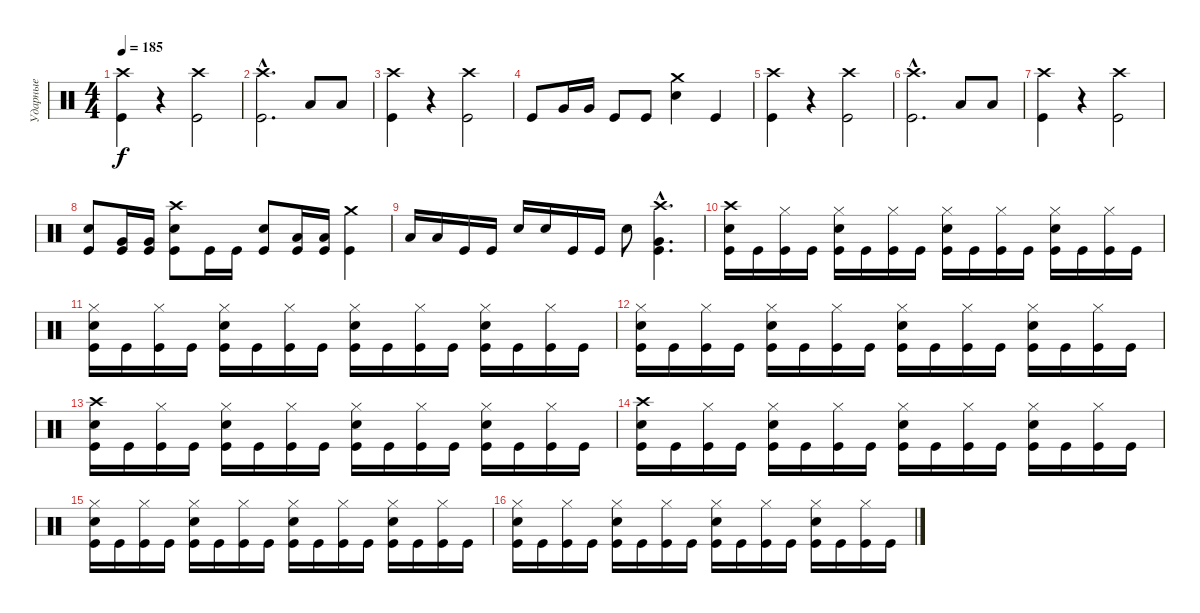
\track ("Ударные" "Ударные") {instrument percussion}
\staff {score}
\articulation defaults
\ts (4 4)
\tempo 185
\clef neutral
\ks c
("Crash high (hit)" "Kick (hit)").4{dy f} r.4 ("Crash high (hit)" "Kick (hit)").2 |
("Crash high (hit)"{hac} "Kick (hit)"{hac}).2{d} "Low Tom (hit)".8 "Low Tom (hit)".8 |
("Crash high (hit)" "Kick (hit)").4 r.4 ("Crash high (hit)" "Kick (hit)").2 |
"Kick (hit)".8 "Very Low Tom (hit)".16 "Very Low Tom (hit)".16 "Kick (hit)".8 "Kick (hit)".8 ("Crash medium (hit)" "Electric Snare (hit)").4 "Kick (hit)".4 |
("Crash high (hit)" "Kick (hit)").4 r.4 ("Crash high (hit)" "Kick (hit)").2 |
("Crash high (hit)"{hac} "Kick (hit)"{hac}).2{d} "Low Tom (hit)".8 "Low Tom (hit)".8 |
("Crash high (hit)" "Kick (hit)").4 r.4 ("Crash high (hit)" "Kick (hit)").2 |
("Electric Snare (hit)" "Kick (hit)").8 ("Very Low Tom (hit)" "Kick (hit)").16 ("Very Low Tom (hit)" "Kick (hit)").16 ("Crash high (hit)" "Electric Snare (hit)" "Kick (hit)").8 "Kick (hit)".16 "Kick (hit)".16 ("Electric Snare (hit)" "Kick (hit)").8 ("Low Tom (hit)" "Kick (hit)").16 ("Low Tom (hit)" "Kick (hit)").16 ("Crash medium (hit)" "Kick (hit)").4 |
"Low Tom (hit)".16 "Low Tom (hit)".16 "Kick (hit)".16 "Kick (hit)".16 "Electric Snare (hit)".16 "Electric Snare (hit)".16 "Kick (hit)".16 "Kick (hit)".16 "Electric Snare (hit)".8 ("Crash high (hit)"{hac} "Very Low Tom (hit)"{hac} "Kick (hit)"{hac}).4{d} |
("Crash high (hit)" "Electric Snare (hit)" "Kick (hit)").16 "Kick (hit)".16 ("Hi-Hat (closed)" "Kick (hit)").16 "Kick (hit)".16 ("Hi-Hat (closed)" "Electric Snare (hit)" "Kick (hit)").16 "Kick (hit)".16 ("Hi-Hat (closed)" "Kick (hit)").16 "Kick (hit)".16 ("Hi-Hat (closed)" "Electric Snare (hit)" "Kick (hit)").16 "Kick (hit)".16 ("Hi-Hat (closed)" "Kick (hit)").16 "Kick (hit)".16 ("Hi-Hat (closed)" "Electric Snare (hit)" "Kick (hit)").16 "Kick (hit)".16 ("Hi-Hat (closed)" "Kick (hit)").16 "Kick (hit)".16 |
("Hi-Hat (closed)" "Electric Snare (hit)" "Kick (hit)").16 "Kick (hit)".16 ("Hi-Hat (closed)" "Kick (hit)").16 "Kick (hit)".16 ("Hi-Hat (closed)" "Electric Snare (hit)" "Kick (hit)").16 "Kick (hit)".16 ("Hi-Hat (closed)" "Kick (hit)").16 "Kick (hit)".16 ("Hi-Hat (closed)" "Electric Snare (hit)" "Kick (hit)").16 "Kick (hit)".16 ("Hi-Hat (closed)" "Kick (hit)").16 "Kick (hit)".16 ("Hi-Hat (closed)" "Electric Snare (hit)" "Kick (hit)").16 "Kick (hit)".16 ("Hi-Hat (closed)" "Kick (hit)").16 "Kick (hit)".16 |
("Hi-Hat (closed)" "Electric Snare (hit)" "Kick (hit)").16 "Kick (hit)".16 ("Hi-Hat (closed)" "Kick (hit)").16 "Kick (hit)".16 ("Hi-Hat (closed)" "Electric Snare (hit)" "Kick (hit)").16 "Kick (hit)".16 ("Hi-Hat (closed)" "Kick (hit)").16 "Kick (hit)".16 ("Hi-Hat (closed)" "Electric Snare (hit)" "Kick (hit)").16 "Kick (hit)".16 ("Hi-Hat (closed)" "Kick (hit)").16 "Kick (hit)".16 ("Hi-Hat (closed)" "Electric Snare (hit)" "Kick (hit)").16 "Kick (hit)".16 ("Hi-Hat (closed)" "Kick (hit)").16 "Kick (hit)".16 |
("Crash high (hit)" "Electric Snare (hit)" "Kick (hit)").16 "Kick (hit)".16 ("Hi-Hat (closed)" "Kick (hit)").16 "Kick (hit)".16 ("Hi-Hat (closed)" "Electric Snare (hit)" "Kick (hit)").16 "Kick (hit)".16 ("Hi-Hat (closed)" "Kick (hit)").16 "Kick (hit)".16 ("Hi-Hat (closed)" "Electric Snare (hit)" "Kick (hit)").16 "Kick (hit)".16 ("Hi-Hat (closed)" "Kick (hit)").16 "Kick (hit)".16 ("Hi-Hat (closed)" "Electric Snare (hit)" "Kick (hit)").16 "Kick (hit)".16 ("Hi-Hat (closed)" "Kick (hit)").16 "Kick (hit)".16 |
("Crash high (hit)" "Electric Snare (hit)" "Kick (hit)").16 "Kick (hit)".16 ("Hi-Hat (closed)" "Kick (hit)").16 "Kick (hit)".16 ("Hi-Hat (closed)" "Electric Snare (hit)" "Kick (hit)").16 "Kick (hit)".16 ("Hi-Hat (closed)" "Kick (hit)").16 "Kick (hit)".16 ("Hi-Hat (closed)" "Electric Snare (hit)" "Kick (hit)").16 "Kick (hit)".16 ("Hi-Hat (closed)" "Kick (hit)").16 "Kick (hit)".16 ("Hi-Hat (closed)" "Electric Snare (hit)" "Kick (hit)").16 "Kick (hit)".16 ("Hi-Hat (closed)" "Kick (hit)").16 "Kick (hit)".16 |
("Hi-Hat (closed)" "Electric Snare (hit)" "Kick (hit)").16 "Kick (hit)".16 ("Hi-Hat (closed)" "Kick (hit)").16 "Kick (hit)".16 ("Hi-Hat (closed)" "Electric Snare (hit)" "Kick (hit)").16 "Kick (hit)".16 ("Hi-Hat (closed)" "Kick (hit)").16 "Kick (hit)".16 ("Hi-Hat (closed)" "Electric Snare (hit)" "Kick (hit)").16 "Kick (hit)".16 ("Hi-Hat (closed)" "Kick (hit)").16 "Kick (hit)".16 ("Hi-Hat (closed)" "Electric Snare (hit)" "Kick (hit)").16 "Kick (hit)".16 ("Hi-Hat (closed)" "Kick (hit)").16 "Kick (hit)".16 |
("Hi-Hat (closed)" "Electric Snare (hit)" "Kick (hit)").16 "Kick (hit)".16 ("Hi-Hat (closed)" "Kick (hit)").16 "Kick (hit)".16 ("Hi-Hat (closed)" "Electric Snare (hit)" "Kick (hit)").16 "Kick (hit)".16 ("Hi-Hat (closed)" "Kick (hit)").16 "Kick (hit)".16 ("Hi-Hat (closed)" "Electric Snare (hit)" "Kick (hit)").16 "Kick (hit)".16 ("Hi-Hat (closed)" "Kick (hit)").16 "Kick (hit)".16 ("Hi-Hat (closed)" "Electric Snare (hit)" "Kick (hit)").16 "Kick (hit)".16 ("Hi-Hat (closed)" "Kick (hit)").16 "Kick (hit)".16
